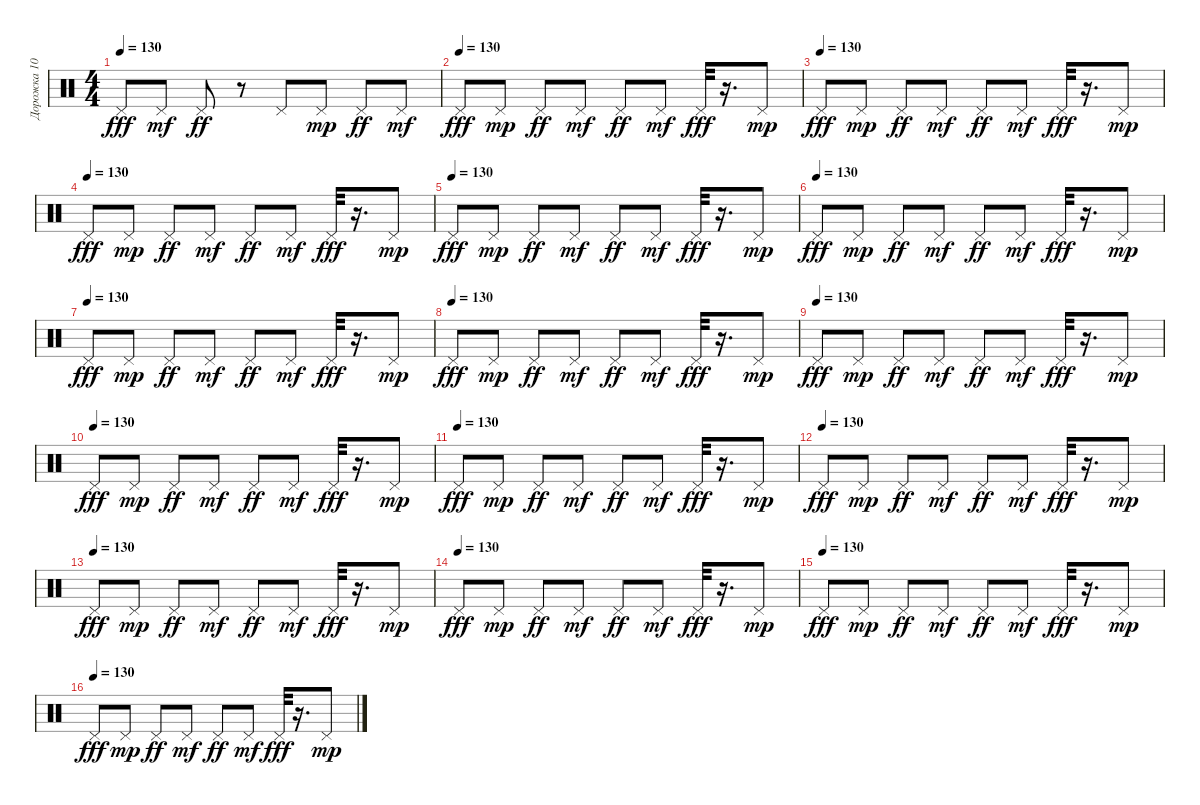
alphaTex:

\track ("Дорожка 10" "Дорожка 10") {instrument percussion}
\staff {score}
\articulation defaults
\ts (4 4)
\tempo 130
\clef neutral
\ks c "Pedal Hi-Hat (hit)".8{dy fff} "Pedal Hi-Hat (hit)".8{dy mf} "Pedal Hi-Hat (hit)".8{dy ff}
r.8 "Pedal Hi-Hat (hit)".8 "Pedal Hi-Hat (hit)".8{dy mp} "Pedal Hi-Hat (hit)".8{dy ff} "Pedal Hi-Hat (hit)".8{dy mf} |
\tempo (130)
"Pedal Hi-Hat (hit)".8{dy fff} "Pedal Hi-Hat (hit)".8{dy mp} "Pedal Hi-Hat (hit)".8{dy ff} "Pedal Hi-Hat (hit)".8{dy mf} "Pedal Hi-Hat (hit)".8{dy ff} "Pedal Hi-Hat (hit)".8{dy mf} "Pedal Hi-Hat (hit)".32{dy fff} r.16{d} "Pedal Hi-Hat (hit)".8{dy mp} |
\tempo (130)
"Pedal Hi-Hat (hit)".8{dy fff} "Pedal Hi-Hat (hit)".8{dy mp} "Pedal Hi-Hat (hit)".8{dy ff} "Pedal Hi-Hat (hit)".8{dy mf} "Pedal Hi-Hat (hit)".8{dy ff} "Pedal Hi-Hat (hit)".8{dy mf} "Pedal Hi-Hat (hit)".32{dy fff} r.16{d} "Pedal Hi-Hat (hit)".8{dy mp} |
\tempo (130)
"Pedal Hi-Hat (hit)".8{dy fff} "Pedal Hi-Hat (hit)".8{dy mp} "Pedal Hi-Hat (hit)".8{dy ff} "Pedal Hi-Hat (hit)".8{dy mf} "Pedal Hi-Hat (hit)".8{dy ff} "Pedal Hi-Hat (hit)".8{dy mf} "Pedal Hi-Hat (hit)".32{dy fff} r.16{d} "Pedal Hi-Hat (hit)".8{dy mp} |
\tempo (130)
"Pedal Hi-Hat (hit)".8{dy fff} "Pedal Hi-Hat (hit)".8{dy mp} "Pedal Hi-Hat (hit)".8{dy ff} "Pedal Hi-Hat (hit)".8{dy mf} "Pedal Hi-Hat (hit)".8{dy ff} "Pedal Hi-Hat (hit)".8{dy mf} "Pedal Hi-Hat (hit)".32{dy fff} r.16{d} "Pedal Hi-Hat (hit)".8{dy mp} |
\tempo (130)
"Pedal Hi-Hat (hit)".8{dy fff} "Pedal Hi-Hat (hit)".8{dy mp} "Pedal Hi-Hat (hit)".8{dy ff} "Pedal Hi-Hat (hit)".8{dy mf} "Pedal Hi-Hat (hit)".8{dy ff} "Pedal Hi-Hat (hit)".8{dy mf} "Pedal Hi-Hat (hit)".32{dy fff} r.16{d} "Pedal Hi-Hat (hit)".8{dy mp} |
\tempo (130)
"Pedal Hi-Hat (hit)".8{dy fff} "Pedal Hi-Hat (hit)".8{dy mp} "Pedal Hi-Hat (hit)".8{dy ff} "Pedal Hi-Hat (hit)".8{dy mf} "Pedal Hi-Hat (hit)".8{dy ff} "Pedal Hi-Hat (hit)".8{dy mf} "Pedal Hi-Hat (hit)".32{dy fff} r.16{d} "Pedal Hi-Hat (hit)".8{dy mp} |
\tempo (130)
"Pedal Hi-Hat (hit)".8{dy fff} "Pedal Hi-Hat (hit)".8{dy mp} "Pedal Hi-Hat (hit)".8{dy ff} "Pedal Hi-Hat (hit)".8{dy mf} "Pedal Hi-Hat (hit)".8{dy ff} "Pedal Hi-Hat (hit)".8{dy mf} "Pedal Hi-Hat (hit)".32{dy fff} r.16{d} "Pedal Hi-Hat (hit)".8{dy mp} |
\tempo (130)
"Pedal Hi-Hat (hit)".8{dy fff} "Pedal Hi-Hat (hit)".8{dy mp} "Pedal Hi-Hat (hit)".8{dy ff} "Pedal Hi-Hat (hit)".8{dy mf} "Pedal Hi-Hat (hit)".8{dy ff} "Pedal Hi-Hat (hit)".8{dy mf} "Pedal Hi-Hat (hit)".32{dy fff} r.16{d} "Pedal Hi-Hat (hit)".8{dy mp} |
\tempo (130)
"Pedal Hi-Hat (hit)".8{dy fff} "Pedal Hi-Hat (hit)".8{dy mp} "Pedal Hi-Hat (hit)".8{dy ff} "Pedal Hi-Hat (hit)".8{dy mf} "Pedal Hi-Hat (hit)".8{dy ff} "Pedal Hi-Hat (hit)".8{dy mf} "Pedal Hi-Hat (hit)".32{dy fff} r.16{d} "Pedal Hi-Hat (hit)".8{dy mp} |
\tempo (130)
"Pedal Hi-Hat (hit)".8{dy fff} "Pedal Hi-Hat (hit)".8{dy mp} "Pedal Hi-Hat (hit)".8{dy ff} "Pedal Hi-Hat (hit)".8{dy mf} "Pedal Hi-Hat (hit)".8{dy ff} "Pedal Hi-Hat (hit)".8{dy mf} "Pedal Hi-Hat (hit)".32{dy fff} r.16{d} "Pedal Hi-Hat (hit)".8{dy mp} |
\tempo (130)
"Pedal Hi-Hat (hit)".8{dy fff} "Pedal Hi-Hat (hit)".8{dy mp} "Pedal Hi-Hat (hit)".8{dy ff} "Pedal Hi-Hat (hit)".8{dy mf} "Pedal Hi-Hat (hit)".8{dy ff} "Pedal Hi-Hat (hit)".8{dy mf} "Pedal Hi-Hat (hit)".32{dy fff} r.16{d} "Pedal Hi-Hat (hit)".8{dy mp} |
\tempo (130)
"Pedal Hi-Hat (hit)".8{dy fff} "Pedal Hi-Hat (hit)".8{dy mp} "Pedal Hi-Hat (hit)".8{dy ff} "Pedal Hi-Hat (hit)".8{dy mf} "Pedal Hi-Hat (hit)".8{dy ff} "Pedal Hi-Hat (hit)".8{dy mf} "Pedal Hi-Hat (hit)".32{dy fff} r.16{d} "Pedal Hi-Hat (hit)".8{dy mp} |
\tempo (130)
"Pedal Hi-Hat (hit)".8{dy fff} "Pedal Hi-Hat (hit)".8{dy mp} "Pedal Hi-Hat (hit)".8{dy ff} "Pedal Hi-Hat (hit)".8{dy mf} "Pedal Hi-Hat (hit)".8{dy ff} "Pedal Hi-Hat (hit)".8{dy mf} "Pedal Hi-Hat (hit)".32{dy fff} r.16{d} "Pedal Hi-Hat (hit)".8{dy mp} |
\tempo (130)
"Pedal Hi-Hat (hit)".8{dy fff} "Pedal Hi-Hat (hit)".8{dy mp} "Pedal Hi-Hat (hit)".8{dy ff} "Pedal Hi-Hat (hit)".8{dy mf} "Pedal Hi-Hat (hit)".8{dy ff} "Pedal Hi-Hat (hit)".8{dy mf} "Pedal Hi-Hat (hit)".32{dy fff} r.16{d} "Pedal Hi-Hat (hit)".8{dy mp} |
\tempo (130)
"Pedal Hi-Hat (hit)".8{dy fff} "Pedal Hi-Hat (hit)".8{dy mp} "Pedal Hi-Hat (hit)".8{dy ff} "Pedal Hi-Hat (hit)".8{dy mf} "Pedal Hi-Hat (hit)".8{dy ff} "Pedal Hi-Hat (hit)".8{dy mf} "Pedal Hi-Hat (hit)".32{dy fff} r.16{d} "Pedal Hi-Hat (hit)".8{dy mp}
